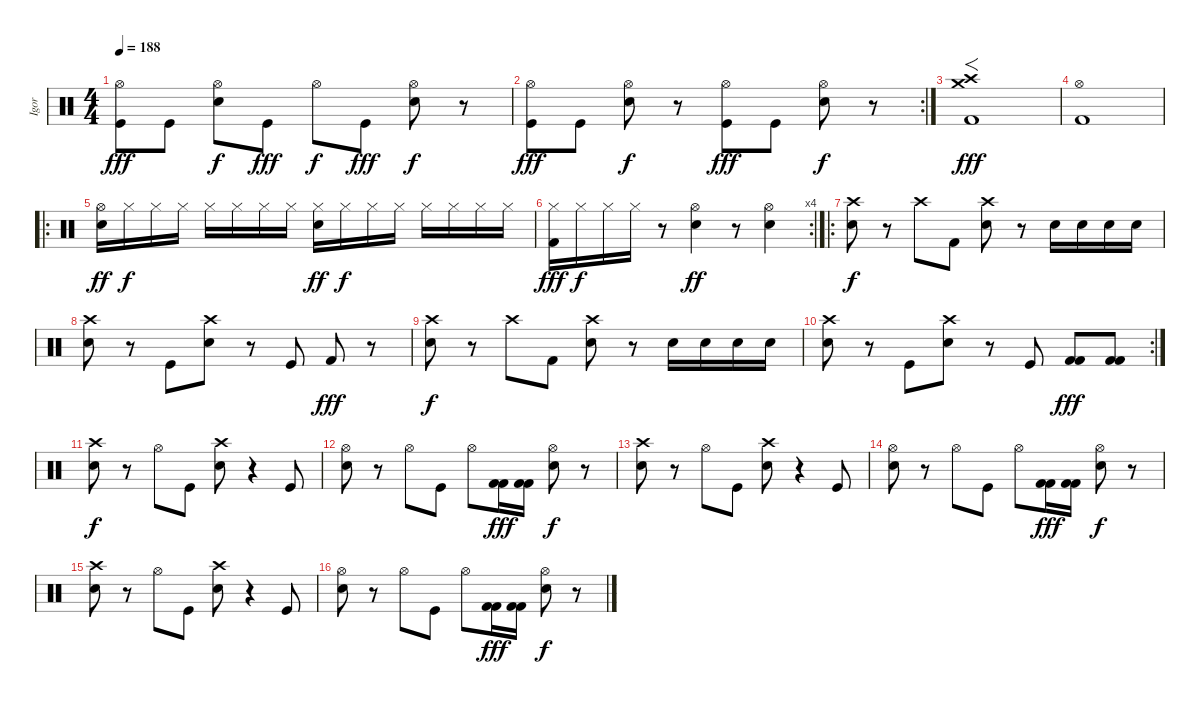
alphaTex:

\track ("Igor" "Igor") {instrument percussion}
\staff {score}
\articulation defaults
\ts (4 4)
\tempo 188
\clef neutral
\ks c
("Hi-Hat (open)" "Kick (hit)").8{dy fff} "Kick (hit)".8 ("Hi-Hat (open)" "Snare (hit) 2").8{dy f} "Kick (hit)".8{dy fff} "Hi-Hat (open)".8{dy f} "Kick (hit)".8{dy fff} ("Hi-Hat (open)" "Snare (hit) 2").8{dy f} r.8 |
\rc 2
("Hi-Hat (open)" "Kick (hit)").8{dy fff} "Kick (hit)".8 ("Hi-Hat (open)" "Snare (hit) 2").8{dy f} r.8 ("Hi-Hat (open)" "Kick (hit)").8{dy fff} "Kick (hit)".8 ("Hi-Hat (open)" "Snare (hit) 2").8{dy f} r.8 |
("Crash high (hit)" "Crash medium (hit)" "Kick (hit) 2").1{f dy fff} |
("Hi-Hat (open)" "Kick (hit) 2").1 |
\ro
("Hi-Hat (open)" "Snare (hit) 2").16{dy ff} "Hi-Hat (closed)".16{dy f} "Hi-Hat (closed)".16 "Hi-Hat (closed)".16 "Hi-Hat (closed)".16 "Hi-Hat (closed)".16 "Hi-Hat (closed)".16 "Hi-Hat (closed)".16 ("Hi-Hat (closed)" "Snare (hit) 2").16{dy ff} "Hi-Hat (closed)".16{dy f} "Hi-Hat (closed)".16 "Hi-Hat (closed)".16 "Hi-Hat (closed)".16 "Hi-Hat (closed)".16 "Hi-Hat (closed)".16 "Hi-Hat (closed)".16 |
\rc 4
("Hi-Hat (closed)" "Kick (hit) 2").16{dy fff} "Hi-Hat (closed)".16{dy f} "Hi-Hat (closed)".16 "Hi-Hat (closed)".16 r.8 ("Hi-Hat (open)" "Snare (hit) 2").4{dy ff} r.8 ("Hi-Hat (open)" "Snare (hit) 2").4 |
\ro
("Crash high (hit)" "Snare (hit) 2").8{dy f} r.8 "Crash high (hit)".8 "Kick (hit) 2".8 ("Crash high (hit)" "Snare (hit) 2").8 r.8 "Snare (hit) 2".16 "Snare (hit) 2".16 "Snare (hit) 2".16 "Snare (hit) 2".16 |
("Crash high (hit)" "Snare (hit) 2").8 r.8 "Kick (hit)".8 ("Crash high (hit)" "Snare (hit) 2").8 r.8 "Kick (hit)".8 "Kick (hit) 2".8{dy fff} r.8 |
("Crash high (hit)" "Snare (hit) 2").8{dy f} r.8 "Crash high (hit)".8 "Kick (hit) 2".8 ("Crash high (hit)" "Snare (hit) 2").8 r.8 "Snare (hit) 2".16 "Snare (hit) 2".16 "Snare (hit) 2".16 "Snare (hit) 2".16 |
\rc 2
("Crash high (hit)" "Snare (hit) 2").8 r.8 "Kick (hit)".8 ("Crash high (hit)" "Snare (hit) 2").8 r.8 "Kick (hit)".8 ("Kick (hit) 2" "Kick (hit) 2").8{dy fff} ("Kick (hit) 2" "Kick (hit) 2").8 |
("Crash high (hit)" "Snare (hit) 2").8{dy f} r.8 "Hi-Hat (open)".8 "Kick (hit)".8 ("Crash high (hit)" "Snare (hit) 2").8 r.4 "Kick (hit)".8 |
("Hi-Hat (open)" "Snare (hit) 2").8 r.8 "Hi-Hat (open)".8 "Kick (hit)".8 "Hi-Hat (open)".8 ("Kick (hit) 2" "Kick (hit) 2").16{dy fff} ("Kick (hit) 2" "Kick (hit) 2").16 ("Hi-Hat (open)" "Snare (hit) 2").8{dy f} r.8 |
("Crash high (hit)" "Snare (hit) 2").8 r.8 "Hi-Hat (open)".8 "Kick (hit)".8 ("Crash high (hit)" "Snare (hit) 2").8 r.4 "Kick (hit)".8 |
("Hi-Hat (open)" "Snare (hit) 2").8 r.8 "Hi-Hat (open)".8 "Kick (hit)".8 "Hi-Hat (open)".8 ("Kick (hit) 2" "Kick (hit) 2").16{dy fff} ("Kick (hit) 2" "Kick (hit) 2").16 ("Hi-Hat (open)" "Snare (hit) 2").8{dy f} r.8 |
("Crash high (hit)" "Snare (hit) 2").8 r.8 "Hi-Hat (open)".8 "Kick (hit)".8 ("Crash high (hit)" "Snare (hit) 2").8 r.4 "Kick (hit)".8 |
("Hi-Hat (open)" "Snare (hit) 2").8 r.8 "Hi-Hat (open)".8 "Kick (hit)".8 "Hi-Hat (open)".8 ("Kick (hit) 2" "Kick (hit) 2").16{dy fff} ("Kick (hit) 2" "Kick (hit) 2").16 ("Hi-Hat (open)" "Snare (hit) 2").8{dy f} r.8
